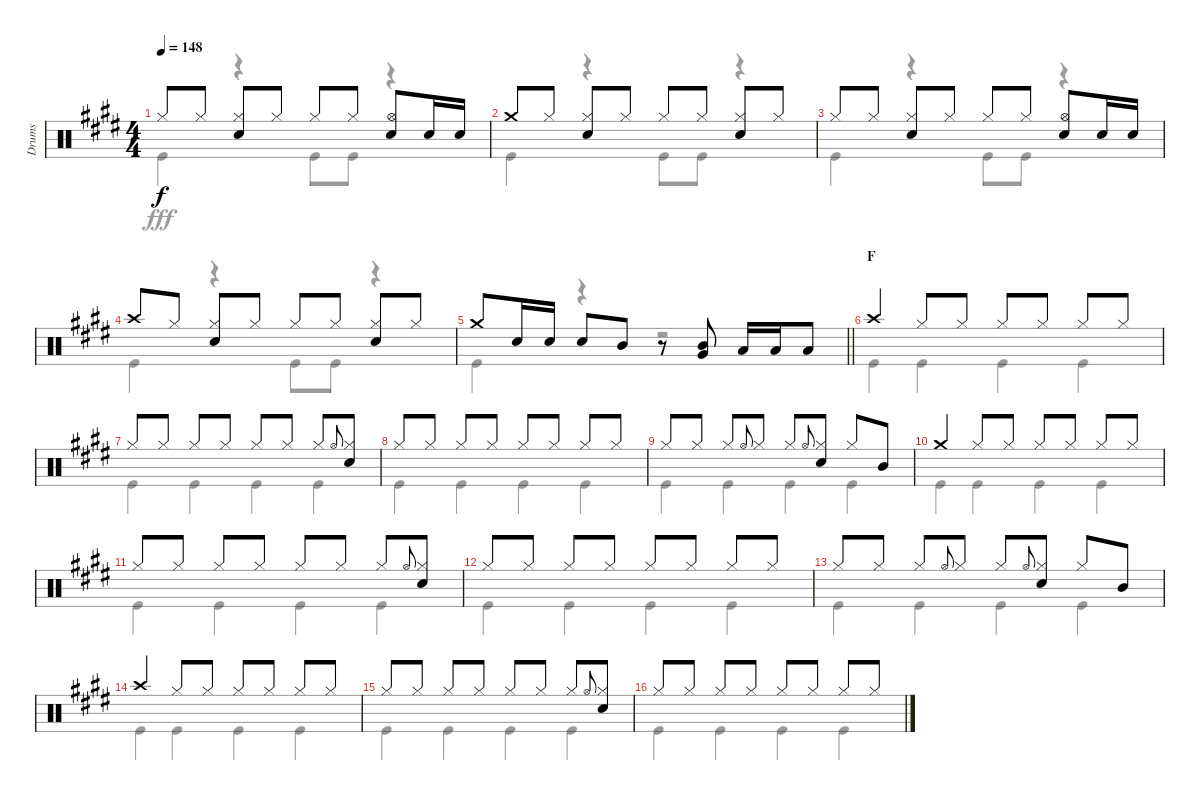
\track ("Drums" "Drums") {instrument percussion}
\staff {score}
\articulation defaults
\voice
\ts (4 4)
\tempo 148
\clef neutral
\ks e "Hi-Hat (closed)".8{dy f} "Hi-Hat (closed)".8
("Hi-Hat (closed)" "Snare (hit) 2").8 "Hi-Hat (closed)".8 "Hi-Hat (closed)".8 "Hi-Hat (closed)".8 ("Hi-Hat (open)" "Snare (hit) 2").8 "Snare (hit) 2".16 "Snare (hit) 2".16 |
"Crash medium (hit)".8 "Hi-Hat (closed)".8 ("Hi-Hat (closed)" "Snare (hit) 2").8 "Hi-Hat (closed)".8 "Hi-Hat (closed)".8 "Hi-Hat (closed)".8 ("Hi-Hat (closed)" "Snare (hit) 2").8 "Hi-Hat (closed)".8 |
"Hi-Hat (closed)".8 "Hi-Hat (closed)".8 ("Hi-Hat (closed)" "Snare (hit) 2").8 "Hi-Hat (closed)".8 "Hi-Hat (closed)".8 "Hi-Hat (closed)".8 ("Hi-Hat (open)" "Snare (hit) 2").8 "Snare (hit) 2".16 "Snare (hit) 2".16 |
"Crash high (hit)".8 "Hi-Hat (closed)".8 ("Hi-Hat (closed)" "Snare (hit) 2").8 "Hi-Hat (closed)".8 "Hi-Hat (closed)".8 "Hi-Hat (closed)".8 ("Hi-Hat (closed)" "Snare (hit) 2").8 "Hi-Hat (closed)".8 |
\barLineRight lightlight "Crash medium (hit)".8 "Snare (hit) 2".16 "Snare (hit) 2".16 "Snare (hit) 2".8 "Mid Tom (hit)".8
r.8 ("Mid Tom (hit)" "Very Low Tom (hit)").8 "Low Tom (hit)".16 "Low Tom (hit)".16 "Low Tom (hit)".8 |
\section ("" "F")
"Crash high (hit)".4 "Hi-Hat (closed)".8 "Hi-Hat (closed)".8 "Hi-Hat (closed)".8 "Hi-Hat (closed)".8 "Hi-Hat (closed)".8 "Hi-Hat (closed)".8 |
"Hi-Hat (closed)".8 "Hi-Hat (closed)".8 "Hi-Hat (closed)".8 "Hi-Hat (closed)".8 "Hi-Hat (closed)".8 "Hi-Hat (closed)".8 "Hi-Hat (closed)".8 "Hi-Hat (open)".8{gr onbeat} ("Hi-Hat (closed)" "Snare (hit) 2").8 |
"Hi-Hat (closed)".8 "Hi-Hat (closed)".8 "Hi-Hat (closed)".8 "Hi-Hat (closed)".8 "Hi-Hat (closed)".8 "Hi-Hat (closed)".8 "Hi-Hat (closed)".8 "Hi-Hat (closed)".8 |
"Hi-Hat (closed)".8 "Hi-Hat (closed)".8 "Hi-Hat (closed)".8 "Hi-Hat (open)".8{gr onbeat} "Hi-Hat (closed)".8 "Hi-Hat (closed)".8 "Hi-Hat (open)".8{gr onbeat} ("Hi-Hat (closed)" "Snare (hit) 2").8 "Hi-Hat (closed)".8 "Mid Tom (hit)".8 |
"Crash medium (hit)".4 "Hi-Hat (closed)".8 "Hi-Hat (closed)".8 "Hi-Hat (closed)".8 "Hi-Hat (closed)".8 "Hi-Hat (closed)".8 "Hi-Hat (closed)".8 |
"Hi-Hat (closed)".8 "Hi-Hat (closed)".8 "Hi-Hat (closed)".8 "Hi-Hat (closed)".8 "Hi-Hat (closed)".8 "Hi-Hat (closed)".8 "Hi-Hat (closed)".8 "Hi-Hat (open)".8{gr onbeat} ("Hi-Hat (closed)" "Snare (hit) 2").8 |
"Hi-Hat (closed)".8 "Hi-Hat (closed)".8 "Hi-Hat (closed)".8 "Hi-Hat (closed)".8 "Hi-Hat (closed)".8 "Hi-Hat (closed)".8 "Hi-Hat (closed)".8 "Hi-Hat (closed)".8 |
"Hi-Hat (closed)".8 "Hi-Hat (closed)".8 "Hi-Hat (closed)".8 "Hi-Hat (open)".8{gr onbeat} "Hi-Hat (closed)".8 "Hi-Hat (closed)".8 "Hi-Hat (open)".8{gr onbeat} ("Hi-Hat (closed)" "Snare (hit) 2").8 "Hi-Hat (closed)".8 "Mid Tom (hit)".8 |
"Crash high (hit)".4 "Hi-Hat (closed)".8 "Hi-Hat (closed)".8 "Hi-Hat (closed)".8 "Hi-Hat (closed)".8 "Hi-Hat (closed)".8 "Hi-Hat (closed)".8 |
"Hi-Hat (closed)".8 "Hi-Hat (closed)".8 "Hi-Hat (closed)".8 "Hi-Hat (closed)".8 "Hi-Hat (closed)".8 "Hi-Hat (closed)".8 "Hi-Hat (closed)".8 "Hi-Hat (open)".8{gr onbeat} ("Hi-Hat (closed)" "Snare (hit) 2").8 |
"Hi-Hat (closed)".8 "Hi-Hat (closed)".8 "Hi-Hat (closed)".8 "Hi-Hat (closed)".8 "Hi-Hat (closed)".8 "Hi-Hat (closed)".8 "Hi-Hat (closed)".8 "Hi-Hat (closed)".8
\voice
\clef neutral
\ottava regular
\simile none
\ks e "Kick (hit)".4{dy fff}
r.4 "Kick (hit)".8 "Kick (hit)".8 r.4 |
"Kick (hit)".4 r.4 "Kick (hit)".8 "Kick (hit)".8 r.4 |
"Kick (hit)".4 r.4 "Kick (hit)".8 "Kick (hit)".8 r.4 |
"Kick (hit)".4 r.4 "Kick (hit)".8 "Kick (hit)".8 r.4 |
\barLineRight lightlight "Kick (hit)".4
r.4 r.2 |
"Kick (hit)".4 "Kick (hit)".4 "Kick (hit)".4 "Kick (hit)".4 |
"Kick (hit)".4 "Kick (hit)".4 "Kick (hit)".4 "Kick (hit)".4 |
"Kick (hit)".4 "Kick (hit)".4 "Kick (hit)".4 "Kick (hit)".4 |
"Kick (hit)".4 "Kick (hit)".4 "Kick (hit)".4 "Kick (hit)".4 |
"Kick (hit)".4 "Kick (hit)".4 "Kick (hit)".4 "Kick (hit)".4 |
"Kick (hit)".4 "Kick (hit)".4 "Kick (hit)".4 "Kick (hit)".4 |
"Kick (hit)".4 "Kick (hit)".4 "Kick (hit)".4 "Kick (hit)".4 |
"Kick (hit)".4 "Kick (hit)".4 "Kick (hit)".4 "Kick (hit)".4 |
"Kick (hit)".4 "Kick (hit)".4 "Kick (hit)".4 "Kick (hit)".4 |
"Kick (hit)".4 "Kick (hit)".4 "Kick (hit)".4 "Kick (hit)".4 |
"Kick (hit)".4 "Kick (hit)".4 "Kick (hit)".4 "Kick (hit)".4
